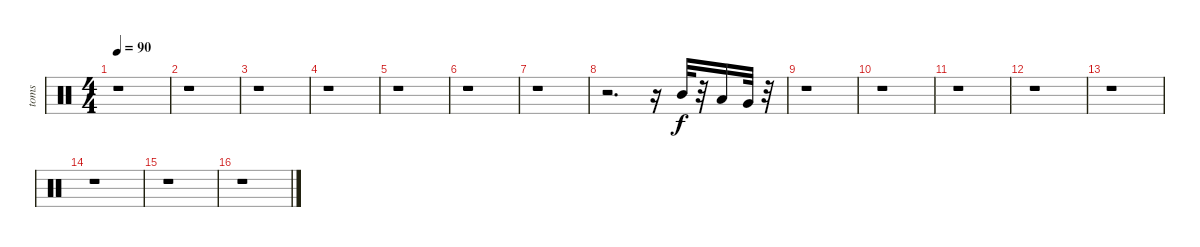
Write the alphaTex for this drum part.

\track ("toms" "toms") {instrument percussion}
\staff {score}
\articulation defaults
\ts (4 4)
\tempo 90
\clef neutral
\ks c
r.1{dy f} |
r.1 |
r.1 |
r.1 |
r.1 |
r.1 |
r.1 |
r.2{d} r.16 "Mid Tom (hit)".32 r.32 "Low Tom (hit)".16 "Very Low Tom (hit)".32 r.32 |
r.1 |
r.1 |
r.1 |
r.1 |
r.1 |
r.1 |
r.1 |
r.1
